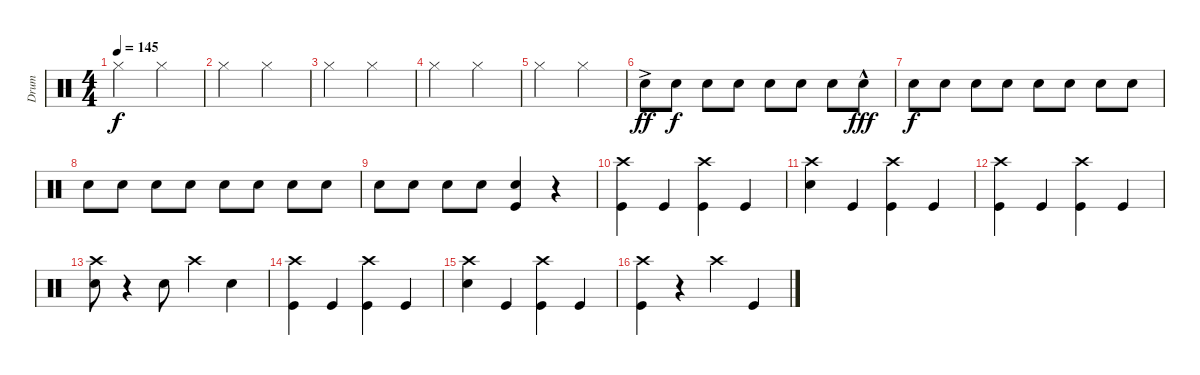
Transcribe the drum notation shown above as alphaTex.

\track ("Drum" "Drum") {instrument percussion}
\staff {score}
\articulation defaults
\ts (4 4)
\tempo 145
\clef neutral
\ks c "Hi-Hat (closed)".2{dy f} "Hi-Hat (closed)".2
|
"Hi-Hat (closed)".2 "Hi-Hat (closed)".2 |
"Hi-Hat (closed)".2 "Hi-Hat (closed)".2 |
"Hi-Hat (closed)".2 "Hi-Hat (closed)".2 |
"Hi-Hat (closed)".2 "Hi-Hat (closed)".2 |
"Snare (hit) 2"{ac}.8{dy ff} "Snare (hit) 2".8{dy f} "Snare (hit) 2".8 "Snare (hit) 2".8 "Snare (hit) 2".8 "Snare (hit) 2".8 "Snare (hit) 2".8 "Snare (hit) 2"{hac}.8{dy fff} |
"Snare (hit) 2".8{dy f} "Snare (hit) 2".8 "Snare (hit) 2".8 "Snare (hit) 2".8 "Snare (hit) 2".8 "Snare (hit) 2".8 "Snare (hit) 2".8 "Snare (hit) 2".8 |
"Snare (hit) 2".8 "Snare (hit) 2".8 "Snare (hit) 2".8 "Snare (hit) 2".8 "Snare (hit) 2".8 "Snare (hit) 2".8 "Snare (hit) 2".8 "Snare (hit) 2".8 |
"Snare (hit) 2".8 "Snare (hit) 2".8 "Snare (hit) 2".8 "Snare (hit) 2".8 ("Kick (hit)" "Snare (hit) 2").4 r.4 |
("Crash high (hit)" "Kick (hit)").4 "Kick (hit)".4 ("Crash high (hit)" "Kick (hit)").4 "Kick (hit)".4 |
("Crash high (hit)" "Snare (hit) 2").4 "Kick (hit)".4 ("Crash high (hit)" "Kick (hit)").4 "Kick (hit)".4 |
("Crash high (hit)" "Kick (hit)").4 "Kick (hit)".4 ("Crash high (hit)" "Kick (hit)").4 "Kick (hit)".4 |
("Crash high (hit)" "Snare (hit) 2").8 r.4 "Snare (hit) 2".8 "Crash high (hit)".4 "Snare (hit) 2".4 |
("Crash high (hit)" "Kick (hit)").4 "Kick (hit)".4 ("Crash high (hit)" "Kick (hit)").4 "Kick (hit)".4 |
("Crash high (hit)" "Snare (hit) 2").4 "Kick (hit)".4 ("Crash high (hit)" "Kick (hit)").4 "Kick (hit)".4 |
("Crash high (hit)" "Kick (hit)").4 r.4 "Crash high (hit)".4 "Kick (hit)".4
